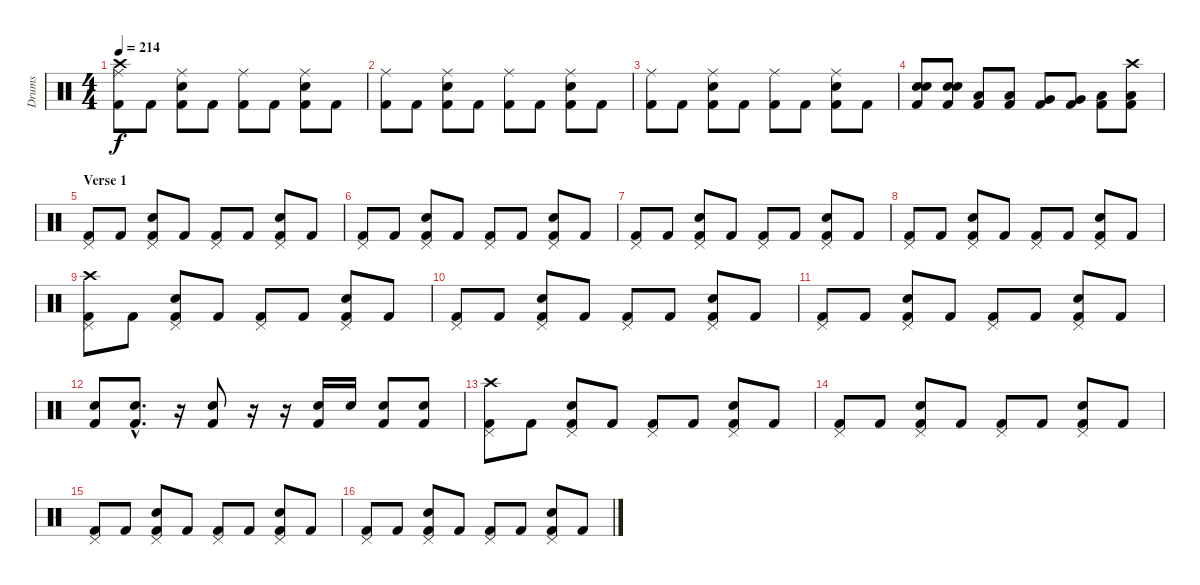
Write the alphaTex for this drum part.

\track ("Drums" "Drums") {instrument percussion}
\staff {score}
\articulation defaults
\ts (4 4)
\tempo 214
\clef neutral
\ks c
("Ride (middle)" "Crash high (hit)" "Kick (hit) 2").8{dy f} "Kick (hit) 2".8 ("Ride (middle)" "Electric Snare (hit)" "Kick (hit) 2").8 "Kick (hit) 2".8 ("Ride (middle)" "Kick (hit) 2").8 "Kick (hit) 2".8 ("Ride (middle)" "Electric Snare (hit)" "Kick (hit) 2").8 "Kick (hit) 2".8 |
("Ride (middle)" "Kick (hit) 2").8 "Kick (hit) 2".8 ("Ride (middle)" "Electric Snare (hit)" "Kick (hit) 2").8 "Kick (hit) 2".8 ("Ride (middle)" "Kick (hit) 2").8 "Kick (hit) 2".8 ("Ride (middle)" "Electric Snare (hit)" "Kick (hit) 2").8 "Kick (hit) 2".8 |
("Ride (middle)" "Kick (hit) 2").8 "Kick (hit) 2".8 ("Ride (middle)" "Electric Snare (hit)" "Kick (hit) 2").8 "Kick (hit) 2".8 ("Ride (middle)" "Kick (hit) 2").8 "Kick (hit) 2".8 ("Ride (middle)" "Electric Snare (hit)" "Kick (hit) 2").8 "Kick (hit) 2".8 |
("Electric Snare (hit)" "Electric Snare (hit)" "Kick (hit) 2").8 ("Electric Snare (hit)" "Electric Snare (hit)" "Kick (hit) 2").8 ("Low Tom (hit)" "Kick (hit) 2").8 ("Low Tom (hit)" "Kick (hit) 2").8 ("Very Low Tom (hit)" "Kick (hit) 2").8 ("Very Low Tom (hit)" "Kick (hit) 2").8 ("Low Floor Tom (hit)" "Kick (hit) 2").8 ("Crash high (hit)" "Low Floor Tom (hit)" "Kick (hit) 2").8 |
\section ("" "Verse 1")
("Pedal Hi-Hat (hit)" "Kick (hit) 2").8 "Kick (hit) 2".8 ("Pedal Hi-Hat (hit)" "Electric Snare (hit)" "Kick (hit) 2").8 "Kick (hit) 2".8 ("Pedal Hi-Hat (hit)" "Kick (hit) 2").8 "Kick (hit) 2".8 ("Pedal Hi-Hat (hit)" "Electric Snare (hit)" "Kick (hit) 2").8 "Kick (hit) 2".8 |
("Pedal Hi-Hat (hit)" "Kick (hit) 2").8 "Kick (hit) 2".8 ("Pedal Hi-Hat (hit)" "Electric Snare (hit)" "Kick (hit) 2").8 "Kick (hit) 2".8 ("Pedal Hi-Hat (hit)" "Kick (hit) 2").8 "Kick (hit) 2".8 ("Pedal Hi-Hat (hit)" "Electric Snare (hit)" "Kick (hit) 2").8 "Kick (hit) 2".8 |
("Pedal Hi-Hat (hit)" "Kick (hit) 2").8 "Kick (hit) 2".8 ("Pedal Hi-Hat (hit)" "Electric Snare (hit)" "Kick (hit) 2").8 "Kick (hit) 2".8 ("Pedal Hi-Hat (hit)" "Kick (hit) 2").8 "Kick (hit) 2".8 ("Pedal Hi-Hat (hit)" "Electric Snare (hit)" "Kick (hit) 2").8 "Kick (hit) 2".8 |
("Pedal Hi-Hat (hit)" "Kick (hit) 2").8 "Kick (hit) 2".8 ("Pedal Hi-Hat (hit)" "Electric Snare (hit)" "Kick (hit) 2").8 "Kick (hit) 2".8 ("Pedal Hi-Hat (hit)" "Kick (hit) 2").8 "Kick (hit) 2".8 ("Pedal Hi-Hat (hit)" "Electric Snare (hit)" "Kick (hit) 2").8 "Kick (hit) 2".8 |
("Pedal Hi-Hat (hit)" "Crash high (hit)" "Kick (hit) 2").8 "Kick (hit) 2".8 ("Pedal Hi-Hat (hit)" "Electric Snare (hit)" "Kick (hit) 2").8 "Kick (hit) 2".8 ("Pedal Hi-Hat (hit)" "Kick (hit) 2").8 "Kick (hit) 2".8 ("Pedal Hi-Hat (hit)" "Electric Snare (hit)" "Kick (hit) 2").8 "Kick (hit) 2".8 |
("Pedal Hi-Hat (hit)" "Kick (hit) 2").8 "Kick (hit) 2".8 ("Pedal Hi-Hat (hit)" "Electric Snare (hit)" "Kick (hit) 2").8 "Kick (hit) 2".8 ("Pedal Hi-Hat (hit)" "Kick (hit) 2").8 "Kick (hit) 2".8 ("Pedal Hi-Hat (hit)" "Electric Snare (hit)" "Kick (hit) 2").8 "Kick (hit) 2".8 |
("Pedal Hi-Hat (hit)" "Kick (hit) 2").8 "Kick (hit) 2".8 ("Pedal Hi-Hat (hit)" "Electric Snare (hit)" "Kick (hit) 2").8 "Kick (hit) 2".8 ("Pedal Hi-Hat (hit)" "Kick (hit) 2").8 "Kick (hit) 2".8 ("Pedal Hi-Hat (hit)" "Electric Snare (hit)" "Kick (hit) 2").8 "Kick (hit) 2".8 |
("Electric Snare (hit)" "Kick (hit) 2").8 ("Electric Snare (hit)"{hac} "Kick (hit) 2"{hac}).8{d} r.16 ("Electric Snare (hit)" "Kick (hit) 2").8 r.16 r.16 ("Electric Snare (hit)" "Kick (hit) 2").16 "Electric Snare (hit)".16 ("Electric Snare (hit)" "Kick (hit) 2").8 ("Electric Snare (hit)" "Kick (hit) 2").8 |
("Pedal Hi-Hat (hit)" "Crash high (hit)" "Kick (hit) 2").8 "Kick (hit) 2".8 ("Pedal Hi-Hat (hit)" "Electric Snare (hit)" "Kick (hit) 2").8 "Kick (hit) 2".8 ("Pedal Hi-Hat (hit)" "Kick (hit) 2").8 "Kick (hit) 2".8 ("Pedal Hi-Hat (hit)" "Electric Snare (hit)" "Kick (hit) 2").8 "Kick (hit) 2".8 |
("Pedal Hi-Hat (hit)" "Kick (hit) 2").8 "Kick (hit) 2".8 ("Pedal Hi-Hat (hit)" "Electric Snare (hit)" "Kick (hit) 2").8 "Kick (hit) 2".8 ("Pedal Hi-Hat (hit)" "Kick (hit) 2").8 "Kick (hit) 2".8 ("Pedal Hi-Hat (hit)" "Electric Snare (hit)" "Kick (hit) 2").8 "Kick (hit) 2".8 |
("Pedal Hi-Hat (hit)" "Kick (hit) 2").8 "Kick (hit) 2".8 ("Pedal Hi-Hat (hit)" "Electric Snare (hit)" "Kick (hit) 2").8 "Kick (hit) 2".8 ("Pedal Hi-Hat (hit)" "Kick (hit) 2").8 "Kick (hit) 2".8 ("Pedal Hi-Hat (hit)" "Electric Snare (hit)" "Kick (hit) 2").8 "Kick (hit) 2".8 |
("Pedal Hi-Hat (hit)" "Kick (hit) 2").8 "Kick (hit) 2".8 ("Pedal Hi-Hat (hit)" "Electric Snare (hit)" "Kick (hit) 2").8 "Kick (hit) 2".8 ("Pedal Hi-Hat (hit)" "Kick (hit) 2").8 "Kick (hit) 2".8 ("Pedal Hi-Hat (hit)" "Electric Snare (hit)" "Kick (hit) 2").8 "Kick (hit) 2".8
